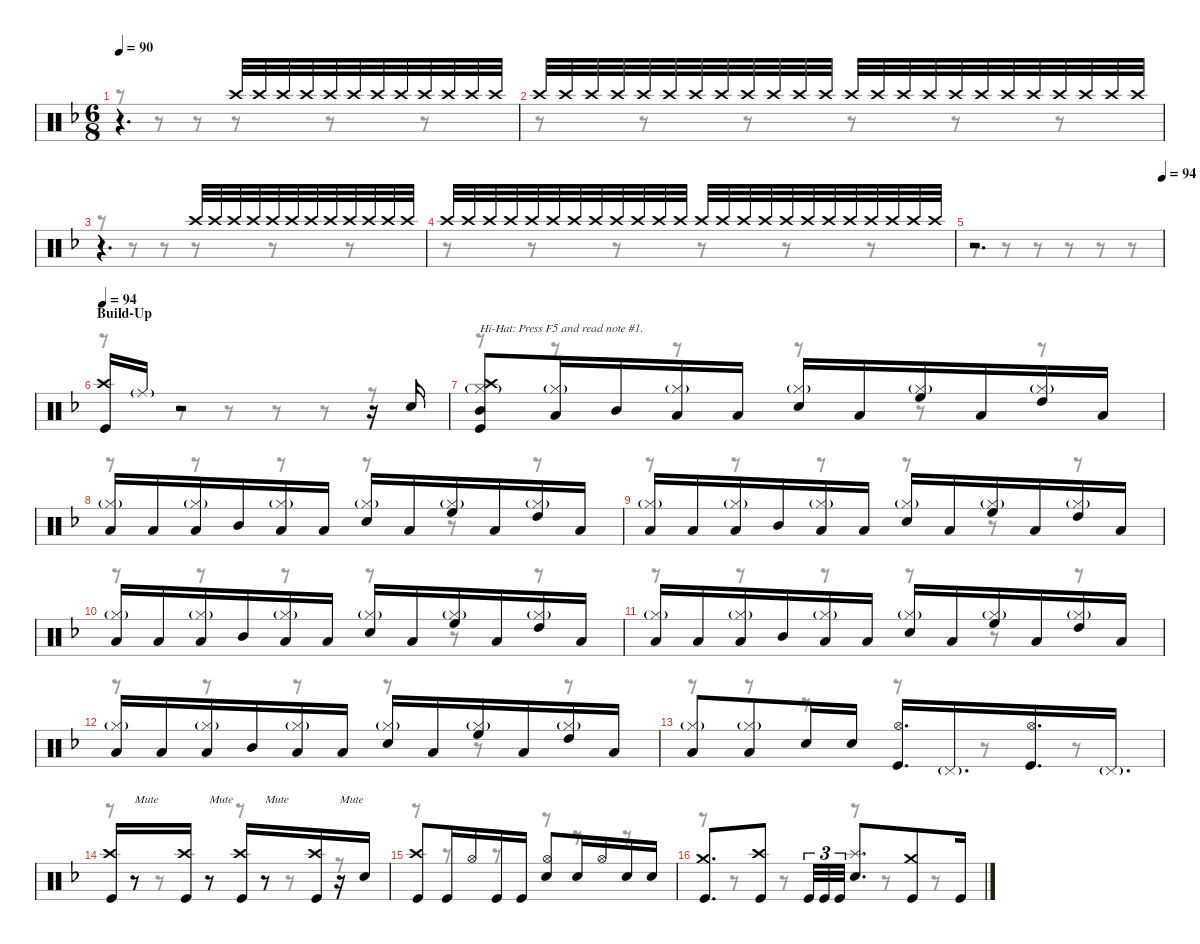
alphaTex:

\defaultSystemsLayout 4
\hideDynamics
\bracketExtendMode nobrackets
\singleTrackTrackNamePolicy hidden
\multiTrackTrackNamePolicy hidden
\otherSystemsTrackNameOrientation horizontal
\track ("M. Lopez" "drm.") {instrument percussion}
\staff {score}
\articulation defaults
\voice
\ts (6 8)
\tempo 90
\clef neutral
\ks dminor
r.4{d dy p beam Up} "Crash high (hit)"{acc forcenatural}.32{beam Up} "Crash high (hit)"{acc forcenatural}.32{beam Up} "Crash high (hit)"{acc forcenatural}.32{beam Up} "Crash high (hit)"{acc forcenatural}.32{beam Up} "Crash high (hit)"{acc forcenatural}.32{beam Up} "Crash high (hit)"{acc forcenatural}.32{beam Up} "Crash high (hit)"{acc forcenatural}.32{beam Up} "Crash high (hit)"{acc forcenatural}.32{beam Up} "Crash high (hit)"{acc forcenatural}.32{beam Up} "Crash high (hit)"{acc forcenatural}.32{beam Up} "Crash high (hit)"{acc forcenatural}.32{beam Up} "Crash high (hit)"{acc forcenatural}.32{beam Up} |
"Crash high (hit)"{acc forcenatural}.32{beam Up} "Crash high (hit)"{acc forcenatural}.32{beam Up} "Crash high (hit)"{acc forcenatural}.32{beam Up} "Crash high (hit)"{acc forcenatural}.32{beam Up} "Crash high (hit)"{acc forcenatural}.32{beam Up} "Crash high (hit)"{acc forcenatural}.32{beam Up} "Crash high (hit)"{acc forcenatural}.32{beam Up} "Crash high (hit)"{acc forcenatural}.32{beam Up} "Crash high (hit)"{acc forcenatural}.32{beam Up} "Crash high (hit)"{acc forcenatural}.32{beam Up} "Crash high (hit)"{acc forcenatural}.32{beam Up} "Crash high (hit)"{acc forcenatural}.32{beam Up} "Crash high (hit)"{acc forcenatural}.32{beam Up} "Crash high (hit)"{acc forcenatural}.32{beam Up} "Crash high (hit)"{acc forcenatural}.32{beam Up} "Crash high (hit)"{acc forcenatural}.32{beam Up} "Crash high (hit)"{acc forcenatural}.32{beam Up} "Crash high (hit)"{acc forcenatural}.32{beam Up} "Crash high (hit)"{acc forcenatural}.32{beam Up} "Crash high (hit)"{acc forcenatural}.32{beam Up} "Crash high (hit)"{acc forcenatural}.32{beam Up} "Crash high (hit)"{acc forcenatural}.32{beam Up} "Crash high (hit)"{acc forcenatural}.32{beam Up} "Crash high (hit)"{acc forcenatural}.32{beam Up} |
r.4{d beam Up} "Crash high (hit)"{acc forcenatural}.32{beam Up} "Crash high (hit)"{acc forcenatural}.32{beam Up} "Crash high (hit)"{acc forcenatural}.32{beam Up} "Crash high (hit)"{acc forcenatural}.32{beam Up} "Crash high (hit)"{acc forcenatural}.32{beam Up} "Crash high (hit)"{acc forcenatural}.32{beam Up} "Crash high (hit)"{acc forcenatural}.32{beam Up} "Crash high (hit)"{acc forcenatural}.32{beam Up} "Crash high (hit)"{acc forcenatural}.32{beam Up} "Crash high (hit)"{acc forcenatural}.32{beam Up} "Crash high (hit)"{acc forcenatural}.32{beam Up} "Crash high (hit)"{acc forcenatural}.32{beam Up} |
"Crash high (hit)"{acc forcenatural}.32{beam Up} "Crash high (hit)"{acc forcenatural}.32{beam Up} "Crash high (hit)"{acc forcenatural}.32{beam Up} "Crash high (hit)"{acc forcenatural}.32{beam Up} "Crash high (hit)"{acc forcenatural}.32{beam Up} "Crash high (hit)"{acc forcenatural}.32{beam Up} "Crash high (hit)"{acc forcenatural}.32{beam Up} "Crash high (hit)"{acc forcenatural}.32{beam Up} "Crash high (hit)"{acc forcenatural}.32{beam Up} "Crash high (hit)"{acc forcenatural}.32{beam Up} "Crash high (hit)"{acc forcenatural}.32{beam Up} "Crash high (hit)"{acc forcenatural}.32{beam Up} "Crash high (hit)"{acc forcenatural}.32{beam Up} "Crash high (hit)"{acc forcenatural}.32{beam Up} "Crash high (hit)"{acc forcenatural}.32{beam Up} "Crash high (hit)"{acc forcenatural}.32{beam Up} "Crash high (hit)"{acc forcenatural}.32{beam Up} "Crash high (hit)"{acc forcenatural}.32{beam Up} "Crash high (hit)"{acc forcenatural}.32{beam Up} "Crash high (hit)"{acc forcenatural}.32{beam Up} "Crash high (hit)"{acc forcenatural}.32{beam Up} "Crash high (hit)"{acc forcenatural}.32{beam Up} "Crash high (hit)"{acc forcenatural}.32{beam Up} "Crash high (hit)"{acc forcenatural}.32{beam Up} |
\tempo (94 1)
r.2{d beam Up} |
\section ("" "Build-Up")
\tempo 94
("Crash high (hit)"{acc forcenatural} "Kick (hit)"{acc forcenatural}).16{dy mf beam Up} "Ride (middle)"{g acc forcenatural}.16{dy pp beam Up} r.2{beam Up} r.16{beam Up} "Snare (hit) 2"{acc forcenatural}.16{dy f beam Up} |
("Crash high (hit)"{acc forcenatural} "Hi-Hat (closed)"{g acc forcenatural} "Mid Tom (hit)"{acc forcenatural} "Kick (hit)"{acc forcenatural}).8{txt "Hi-Hat: Press F5 and read note #1." dy mf beam Up} ("Hi-Hat (closed)"{g acc forcenatural} "Low Floor Tom (hit)"{acc forcenatural}).16{beam Up} "Mid Tom (hit)"{acc forcenatural}.16{beam Up} ("Hi-Hat (closed)"{g acc forcenatural} "Low Tom (hit)"{acc forcenatural}).16{beam Up} "Low Floor Tom (hit)"{acc forcenatural}.16{beam Up} ("Hi-Hat (closed)"{g acc forcenatural} "Snare (hit) 2"{acc forcenatural}).16{dy f beam Up} "Low Floor Tom (hit)"{acc forcenatural}.16{dy mf beam Up} ("Hi-Hat (closed)"{g acc forcenatural} "High Floor Tom (hit)"{acc forcenatural}).16{beam Up} "Low Floor Tom (hit)"{acc forcenatural}.16{beam Up} ("Hi-Hat (closed)"{g acc forcenatural} "High Tom (hit)"{acc forcenatural}).16{beam Up} "Low Floor Tom (hit)"{acc forcenatural}.16{beam Up} |
("Hi-Hat (closed)"{g acc forcenatural} "Low Floor Tom (hit)"{acc forcenatural}).16{beam Up} "Low Tom (hit)"{acc forcenatural}.16{beam Up} ("Hi-Hat (closed)"{g acc forcenatural} "Low Floor Tom (hit)"{acc forcenatural}).16{beam Up} "Mid Tom (hit)"{acc forcenatural}.16{beam Up} ("Hi-Hat (closed)"{g acc forcenatural} "Low Tom (hit)"{acc forcenatural}).16{beam Up} "Low Floor Tom (hit)"{acc forcenatural}.16{beam Up} ("Hi-Hat (closed)"{g acc forcenatural} "Snare (hit) 2"{acc forcenatural}).16{dy f beam Up} "Low Floor Tom (hit)"{acc forcenatural}.16{dy mf beam Up} ("Hi-Hat (closed)"{g acc forcenatural} "High Floor Tom (hit)"{acc forcenatural}).16{beam Up} "Low Floor Tom (hit)"{acc forcenatural}.16{beam Up} ("Hi-Hat (closed)"{g acc forcenatural} "High Tom (hit)"{acc forcenatural}).16{beam Up} "Low Floor Tom (hit)"{acc forcenatural}.16{beam Up} |
("Hi-Hat (closed)"{g acc forcenatural} "Low Floor Tom (hit)"{acc forcenatural}).16{beam Up} "Low Tom (hit)"{acc forcenatural}.16{beam Up} ("Hi-Hat (closed)"{g acc forcenatural} "Low Floor Tom (hit)"{acc forcenatural}).16{beam Up} "Mid Tom (hit)"{acc forcenatural}.16{beam Up} ("Hi-Hat (closed)"{g acc forcenatural} "Low Tom (hit)"{acc forcenatural}).16{beam Up} "Low Floor Tom (hit)"{acc forcenatural}.16{beam Up} ("Hi-Hat (closed)"{g acc forcenatural} "Snare (hit) 2"{acc forcenatural}).16{dy f beam Up} "Low Floor Tom (hit)"{acc forcenatural}.16{dy mf beam Up} ("Hi-Hat (closed)"{g acc forcenatural} "High Floor Tom (hit)"{acc forcenatural}).16{beam Up} "Low Floor Tom (hit)"{acc forcenatural}.16{beam Up} ("Hi-Hat (closed)"{g acc forcenatural} "High Tom (hit)"{acc forcenatural}).16{beam Up} "Low Floor Tom (hit)"{acc forcenatural}.16{beam Up} |
("Hi-Hat (closed)"{g acc forcenatural} "Low Floor Tom (hit)"{acc forcenatural}).16{beam Up} "Low Tom (hit)"{acc forcenatural}.16{beam Up} ("Hi-Hat (closed)"{g acc forcenatural} "Low Floor Tom (hit)"{acc forcenatural}).16{beam Up} "Mid Tom (hit)"{acc forcenatural}.16{beam Up} ("Hi-Hat (closed)"{g acc forcenatural} "Low Tom (hit)"{acc forcenatural}).16{beam Up} "Low Floor Tom (hit)"{acc forcenatural}.16{beam Up} ("Hi-Hat (closed)"{g acc forcenatural} "Snare (hit) 2"{acc forcenatural}).16{dy f beam Up} "Low Floor Tom (hit)"{acc forcenatural}.16{dy mf beam Up} ("Hi-Hat (closed)"{g acc forcenatural} "High Floor Tom (hit)"{acc forcenatural}).16{beam Up} "Low Floor Tom (hit)"{acc forcenatural}.16{beam Up} ("Hi-Hat (closed)"{g acc forcenatural} "High Tom (hit)"{acc forcenatural}).16{beam Up} "Low Floor Tom (hit)"{acc forcenatural}.16{beam Up} |
("Hi-Hat (closed)"{g acc forcenatural} "Low Floor Tom (hit)"{acc forcenatural}).16{beam Up} "Low Tom (hit)"{acc forcenatural}.16{beam Up} ("Hi-Hat (closed)"{g acc forcenatural} "Low Floor Tom (hit)"{acc forcenatural}).16{beam Up} "Mid Tom (hit)"{acc forcenatural}.16{beam Up} ("Hi-Hat (closed)"{g acc forcenatural} "Low Tom (hit)"{acc forcenatural}).16{beam Up} "Low Floor Tom (hit)"{acc forcenatural}.16{beam Up} ("Hi-Hat (closed)"{g acc forcenatural} "Snare (hit) 2"{acc forcenatural}).16{dy f beam Up} "Low Floor Tom (hit)"{acc forcenatural}.16{dy mf beam Up} ("Hi-Hat (closed)"{g acc forcenatural} "High Floor Tom (hit)"{acc forcenatural}).16{beam Up} "Low Floor Tom (hit)"{acc forcenatural}.16{beam Up} ("Hi-Hat (closed)"{g acc forcenatural} "High Tom (hit)"{acc forcenatural}).16{beam Up} "Low Floor Tom (hit)"{acc forcenatural}.16{beam Up} |
("Hi-Hat (closed)"{g acc forcenatural} "Low Floor Tom (hit)"{acc forcenatural}).16{beam Up} "Low Tom (hit)"{acc forcenatural}.16{beam Up} ("Hi-Hat (closed)"{g acc forcenatural} "Low Floor Tom (hit)"{acc forcenatural}).16{beam Up} "Mid Tom (hit)"{acc forcenatural}.16{beam Up} ("Hi-Hat (closed)"{g acc forcenatural} "Low Tom (hit)"{acc forcenatural}).16{beam Up} "Low Floor Tom (hit)"{acc forcenatural}.16{beam Up} ("Hi-Hat (closed)"{g acc forcenatural} "Snare (hit) 2"{acc forcenatural}).16{dy f beam Up} "Low Floor Tom (hit)"{acc forcenatural}.16{dy mf beam Up} ("Hi-Hat (closed)"{g acc forcenatural} "High Floor Tom (hit)"{acc forcenatural}).16{beam Up} "Low Floor Tom (hit)"{acc forcenatural}.16{beam Up} ("Hi-Hat (closed)"{g acc forcenatural} "High Tom (hit)"{acc forcenatural}).16{beam Up} "Low Floor Tom (hit)"{acc forcenatural}.16{beam Up} |
("Hi-Hat (closed)"{g acc forcenatural} "Low Floor Tom (hit)"{acc forcenatural}).8{beam Up} ("Hi-Hat (closed)"{g acc forcenatural} "Low Floor Tom (hit)"{acc forcenatural}).8{beam Up} "Snare (hit) 2"{acc forcenatural}.16{dy f beam Up} "Snare (hit) 2"{acc forcenatural}.16{beam Up} ("Hi-Hat (open)"{acc forcenatural} "Kick (hit)"{acc forcenatural}).16{d beam Up} "Pedal Hi-Hat (hit)"{g acc forcenatural}.16{d dy mf beam Up} ("Hi-Hat (open)"{acc forcenatural} "Kick (hit)"{acc forcenatural}).16{d dy f beam Up} "Pedal Hi-Hat (hit)"{g acc forcenatural}.16{d dy mf beam Up} |
("Crash high (hit)"{acc forcenatural} "Kick (hit)"{acc forcenatural}).16{dy f beam Up} r.8{txt "Mute" beam Up} ("Crash high (hit)"{acc forcenatural} "Kick (hit)"{acc forcenatural}).16{beam Up} r.8{txt "Mute" beam Up} ("Crash high (hit)"{acc forcenatural} "Kick (hit)"{acc forcenatural}).16{beam Up} r.8{txt "Mute" beam Up} ("Crash high (hit)"{acc forcenatural} "Kick (hit)"{acc forcenatural}).16{beam Up} r.16{txt "Mute" beam Up} "Snare (hit) 2"{acc forcenatural}.16{dy ff beam Up} |
("Crash high (hit)"{acc forcenatural} "Kick (hit)"{acc forcenatural}).8{dy f beam Up} "Kick (hit)"{acc forcenatural}.16{beam Up} "Hi-Hat (open)"{acc forcenatural}.16{beam Up} "Kick (hit)"{acc forcenatural}.16{beam Up} "Kick (hit)"{acc forcenatural}.16{beam Up} ("Hi-Hat (open)"{acc forcenatural} "Snare (hit) 2"{acc forcenatural}).8{beam Up} "Snare (hit) 2"{acc forcenatural}.16{beam Up} "Hi-Hat (open)"{acc forcenatural}.16{beam Up} "Snare (hit) 2"{acc forcenatural}.16{beam Up} "Snare (hit) 2"{acc forcenatural}.16{beam Up} |
("Crash medium (hit)"{acc forcenatural} "Kick (hit)"{acc forcenatural}).8{d beam Up} ("Crash high (hit)"{acc forcenatural} "Kick (hit)"{acc forcenatural}).8{beam Up} "Kick (hit)"{acc forcenatural}.32{tu (3 2) beam Up} "Kick (hit)"{acc forcenatural}.32{tu (3 2) beam Up} "Kick (hit)"{acc forcenatural}.32{tu (3 2) beam Up} ("Splash (hit)"{acc forcenatural} "Snare (hit) 2"{acc forcenatural}).8{d beam Up} ("Crash medium (hit)"{acc forcenatural} "Kick (hit)"{acc forcenatural}).8{beam Up} "Kick (hit)"{acc forcenatural}.16{beam Up}
\voice
\clef neutral
\ottava regular
\simile none
\ks dminor
r.8{dy mf beam Down} r.8{beam Down} r.8{beam Down} r.8{beam Down} r.8{beam Down} r.8{beam Down} |
r.8{beam Down} r.8{beam Down} r.8{beam Down} r.8{beam Down} r.8{beam Down} r.8{beam Down} |
r.8{beam Down} r.8{beam Down} r.8{beam Down} r.8{beam Down} r.8{beam Down} r.8{beam Down} |
r.8{beam Down} r.8{beam Down} r.8{beam Down} r.8{beam Down} r.8{beam Down} r.8{beam Down} |
r.8{beam Down} r.8{beam Down} r.8{beam Down} r.8{beam Down} r.8{beam Down} r.8{beam Down} |
r.8{beam Down} r.8{beam Down} r.8{beam Down} r.8{beam Down} r.8{beam Down} r.8{beam Down} |
r.8{beam Down} r.8{beam Down} r.8{beam Down} r.8{beam Down} r.8{beam Down} r.8{beam Down} |
r.8{beam Down} r.8{beam Down} r.8{beam Down} r.8{beam Down} r.8{beam Down} r.8{beam Down} |
r.8{beam Down} r.8{beam Down} r.8{beam Down} r.8{beam Down} r.8{beam Down} r.8{beam Down} |
r.8{beam Down} r.8{beam Down} r.8{beam Down} r.8{beam Down} r.8{beam Down} r.8{beam Down} |
r.8{beam Down} r.8{beam Down} r.8{beam Down} r.8{beam Down} r.8{beam Down} r.8{beam Down} |
r.8{beam Down} r.8{beam Down} r.8{beam Down} r.8{beam Down} r.8{beam Down} r.8{beam Down} |
r.8{beam Down} r.8{beam Down} r.8{beam Down} r.8{beam Down} r.8{beam Down} r.8{beam Down} |
r.8{beam Down} r.8{beam Down} r.8{beam Down} r.8{beam Down} r.8{beam Down} r.8{beam Down} |
r.8{beam Down} r.8{beam Down} r.8{beam Down} r.8{beam Down} r.8{beam Down} r.8{beam Down} |
r.8{beam Down} r.8{beam Down} r.8{beam Down} r.8{beam Down} r.8{beam Down} r.8{beam Down}
